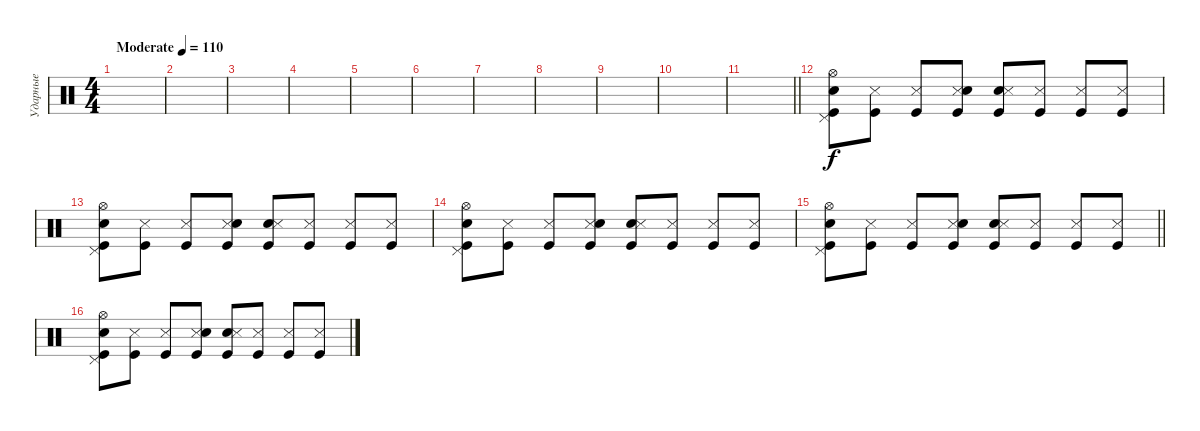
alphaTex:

\track ("Ударные" "Ударные") {instrument percussion}
\staff {score}
\articulation defaults
\ts (4 4)
\tempo (110 "Moderate")
\clef neutral
\ks c
|
|
|
|
|
|
|
|
|
|
\barLineRight lightlight
|
\section ("" "")
("Snare (hit) 2" "Kick (hit)" "Pedal Hi-Hat (hit)" "Hi-Hat (open)").8 ("Kick (hit)" "Snare (side stick) 3").8 ("Snare (side stick) 3" "Kick (hit)").8 ("Kick (hit)" "Snare (side stick) 3" "Snare (hit) 2").8 ("Snare (hit) 2" "Kick (hit)" "Snare (side stick) 3").8 ("Kick (hit)" "Snare (side stick) 3").8 ("Snare (side stick) 3" "Kick (hit)").8 ("Kick (hit)" "Snare (side stick) 3").8 |
("Snare (hit) 2" "Kick (hit)" "Pedal Hi-Hat (hit)" "Hi-Hat (open)").8 ("Kick (hit)" "Snare (side stick) 3").8 ("Snare (side stick) 3" "Kick (hit)").8 ("Kick (hit)" "Snare (side stick) 3" "Snare (hit) 2").8 ("Snare (hit) 2" "Kick (hit)" "Snare (side stick) 3").8 ("Kick (hit)" "Snare (side stick) 3").8 ("Snare (side stick) 3" "Kick (hit)").8 ("Kick (hit)" "Snare (side stick) 3").8 |
("Snare (hit) 2" "Kick (hit)" "Pedal Hi-Hat (hit)" "Hi-Hat (open)").8 ("Kick (hit)" "Snare (side stick) 3").8 ("Snare (side stick) 3" "Kick (hit)").8 ("Kick (hit)" "Snare (side stick) 3" "Snare (hit) 2").8 ("Snare (hit) 2" "Kick (hit)" "Snare (side stick) 3").8 ("Kick (hit)" "Snare (side stick) 3").8 ("Snare (side stick) 3" "Kick (hit)").8 ("Kick (hit)" "Snare (side stick) 3").8 |
\barLineRight lightlight
("Snare (hit) 2" "Kick (hit)" "Pedal Hi-Hat (hit)" "Hi-Hat (open)").8 ("Kick (hit)" "Snare (side stick) 3").8 ("Snare (side stick) 3" "Kick (hit)").8 ("Kick (hit)" "Snare (side stick) 3" "Snare (hit) 2").8 ("Snare (hit) 2" "Kick (hit)" "Snare (side stick) 3").8 ("Kick (hit)" "Snare (side stick) 3").8 ("Snare (side stick) 3" "Kick (hit)").8 ("Kick (hit)" "Snare (side stick) 3").8 |
("Snare (hit) 2" "Kick (hit)" "Pedal Hi-Hat (hit)" "Hi-Hat (open)").8 ("Kick (hit)" "Snare (side stick) 3").8 ("Snare (side stick) 3" "Kick (hit)").8 ("Kick (hit)" "Snare (side stick) 3" "Snare (hit) 2").8 ("Snare (hit) 2" "Kick (hit)" "Snare (side stick) 3").8 ("Kick (hit)" "Snare (side stick) 3").8 ("Snare (side stick) 3" "Kick (hit)").8 ("Kick (hit)" "Snare (side stick) 3").8
